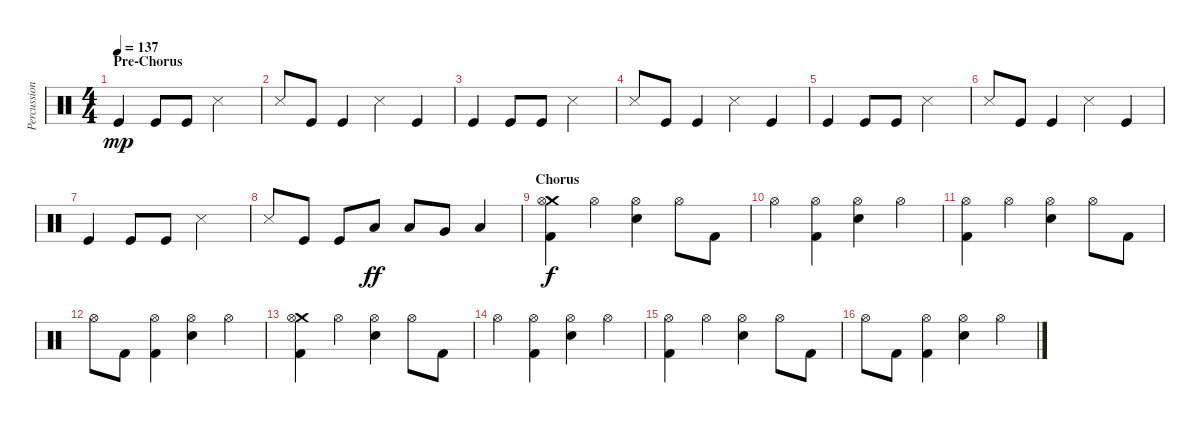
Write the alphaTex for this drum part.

\track ("Percussion" "Percussion") {instrument percussion}
\staff {score}
\articulation defaults
\ts (4 4)
\section ("" "Pre-Chorus")
\tempo 137
\clef neutral
\ks c "Kick (hit)".4{dy mp} "Kick (hit)".8 "Kick (hit)".8 "Snare (side stick) 3".2
|
"Snare (side stick) 3".8 "Kick (hit)".8 "Kick (hit)".4 "Snare (side stick) 3".4 "Kick (hit)".4 |
"Kick (hit)".4 "Kick (hit)".8 "Kick (hit)".8 "Snare (side stick) 3".2 |
"Snare (side stick) 3".8 "Kick (hit)".8 "Kick (hit)".4 "Snare (side stick) 3".4 "Kick (hit)".4 |
"Kick (hit)".4 "Kick (hit)".8 "Kick (hit)".8 "Snare (side stick) 3".2 |
"Snare (side stick) 3".8 "Kick (hit)".8 "Kick (hit)".4 "Snare (side stick) 3".4 "Kick (hit)".4 |
"Kick (hit)".4 "Kick (hit)".8 "Kick (hit)".8 "Snare (side stick) 3".2 |
"Snare (side stick) 3".8 "Kick (hit)".8 "Kick (hit)".8 "Low Tom (hit)".8{dy ff} "Low Tom (hit)".8 "Very Low Tom (hit)".8 "Low Floor Tom (hit)".4 |
\section ("" "Chorus")
("Crash medium (hit)" "Hi-Hat (open)" "Kick (hit) 2").4{dy f} "Hi-Hat (open)".4 ("Hi-Hat (open)" "Electric Snare (hit)").4 "Hi-Hat (open)".8 "Kick (hit) 2".8 |
"Hi-Hat (open)".4 ("Hi-Hat (open)" "Kick (hit) 2").4 ("Hi-Hat (open)" "Electric Snare (hit)").4 "Hi-Hat (open)".4 |
("Hi-Hat (open)" "Kick (hit) 2").4 "Hi-Hat (open)".4 ("Hi-Hat (open)" "Electric Snare (hit)").4 "Hi-Hat (open)".8 "Kick (hit) 2".8 |
"Hi-Hat (open)".8 "Kick (hit) 2".8 ("Hi-Hat (open)" "Kick (hit) 2").4 ("Hi-Hat (open)" "Electric Snare (hit)").4 "Hi-Hat (open)".4 |
("Crash medium (hit)" "Hi-Hat (open)" "Kick (hit) 2").4 "Hi-Hat (open)".4 ("Hi-Hat (open)" "Electric Snare (hit)").4 "Hi-Hat (open)".8 "Kick (hit) 2".8 |
"Hi-Hat (open)".4 ("Hi-Hat (open)" "Kick (hit) 2").4 ("Hi-Hat (open)" "Electric Snare (hit)").4 "Hi-Hat (open)".4 |
("Hi-Hat (open)" "Kick (hit) 2").4 "Hi-Hat (open)".4 ("Hi-Hat (open)" "Electric Snare (hit)").4 "Hi-Hat (open)".8 "Kick (hit) 2".8 |
"Hi-Hat (open)".8 "Kick (hit) 2".8 ("Hi-Hat (open)" "Kick (hit) 2").4 ("Hi-Hat (open)" "Electric Snare (hit)").4 "Hi-Hat (open)".4
